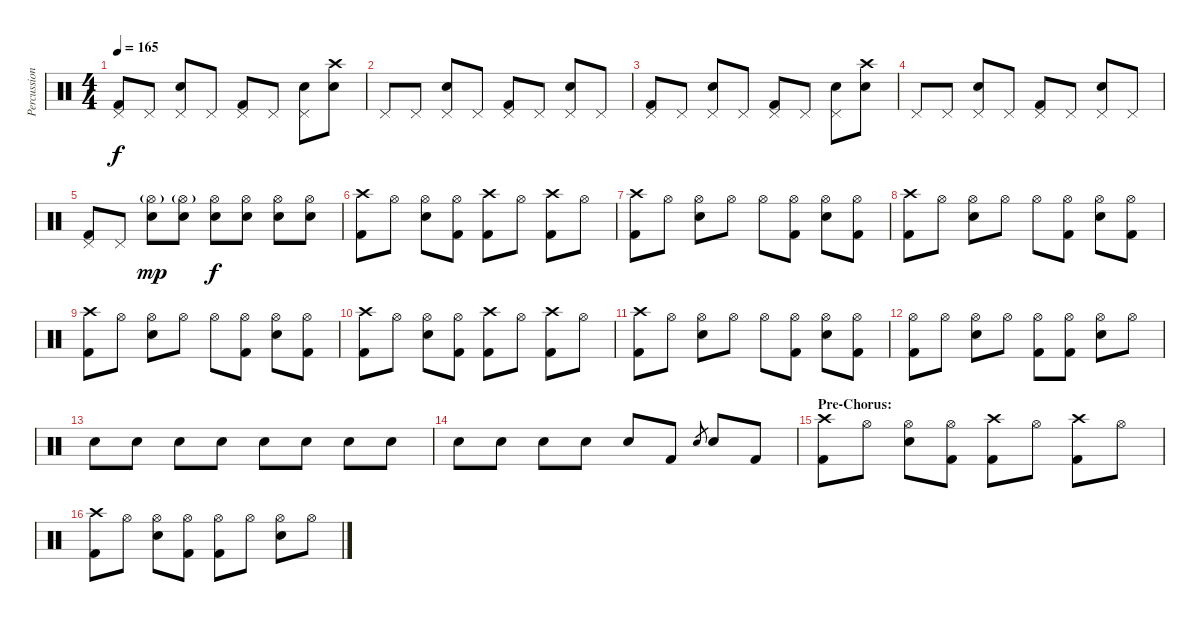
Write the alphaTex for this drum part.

\track ("Percussion" "Percussion") {instrument percussion}
\staff {score}
\articulation defaults
\ts (4 4)
\tempo 165
\clef neutral
\ks c
("Pedal Hi-Hat (hit)" "Kick (hit) 2").8{dy f} "Pedal Hi-Hat (hit)".8 ("Pedal Hi-Hat (hit)" "Snare (hit) 2").8 "Pedal Hi-Hat (hit)".8 ("Pedal Hi-Hat (hit)" "Kick (hit) 2").8 "Pedal Hi-Hat (hit)".8 ("Pedal Hi-Hat (hit)" "Snare (hit) 2").8 ("Crash high (hit)" "Snare (hit) 2").8 |
"Pedal Hi-Hat (hit)".8 "Pedal Hi-Hat (hit)".8 ("Pedal Hi-Hat (hit)" "Snare (hit) 2").8 "Pedal Hi-Hat (hit)".8 ("Pedal Hi-Hat (hit)" "Kick (hit) 2").8 "Pedal Hi-Hat (hit)".8 ("Pedal Hi-Hat (hit)" "Snare (hit) 2").8 "Pedal Hi-Hat (hit)".8 |
("Pedal Hi-Hat (hit)" "Kick (hit) 2").8 "Pedal Hi-Hat (hit)".8 ("Pedal Hi-Hat (hit)" "Snare (hit) 2").8 "Pedal Hi-Hat (hit)".8 ("Pedal Hi-Hat (hit)" "Kick (hit) 2").8 "Pedal Hi-Hat (hit)".8 ("Pedal Hi-Hat (hit)" "Snare (hit) 2").8 ("Crash high (hit)" "Snare (hit) 2").8 |
"Pedal Hi-Hat (hit)".8 "Pedal Hi-Hat (hit)".8 ("Pedal Hi-Hat (hit)" "Snare (hit) 2").8 "Pedal Hi-Hat (hit)".8 ("Pedal Hi-Hat (hit)" "Kick (hit) 2").8 "Pedal Hi-Hat (hit)".8 ("Pedal Hi-Hat (hit)" "Snare (hit) 2").8 "Pedal Hi-Hat (hit)".8 |
("Pedal Hi-Hat (hit)" "Kick (hit) 2").8 "Pedal Hi-Hat (hit)".8 ("Hi-Hat (open)"{g} "Snare (hit) 2").8{dy mp} ("Hi-Hat (open)"{g} "Snare (hit) 2").8 ("Hi-Hat (open)" "Snare (hit) 2").8{dy f} ("Hi-Hat (open)" "Snare (hit) 2").8 ("Hi-Hat (open)" "Snare (hit) 2").8 ("Hi-Hat (open)" "Snare (hit) 2").8 |
("Crash high (hit)" "Kick (hit) 2").8 "Hi-Hat (open)".8 ("Hi-Hat (open)" "Snare (hit) 2").8 ("Hi-Hat (open)" "Kick (hit) 2").8 ("Crash high (hit)" "Kick (hit) 2").8 "Hi-Hat (open)".8 ("Crash high (hit)" "Kick (hit) 2").8 "Hi-Hat (open)".8 |
("Crash high (hit)" "Kick (hit) 2").8 "Hi-Hat (open)".8 ("Hi-Hat (open)" "Snare (hit) 2").8 "Hi-Hat (open)".8 "Hi-Hat (open)".8 ("Hi-Hat (open)" "Kick (hit) 2").8 ("Hi-Hat (open)" "Snare (hit) 2").8 ("Hi-Hat (open)" "Kick (hit) 2").8 |
("Crash high (hit)" "Kick (hit) 2").8 "Hi-Hat (open)".8 ("Hi-Hat (open)" "Snare (hit) 2").8 "Hi-Hat (open)".8 "Hi-Hat (open)".8 ("Hi-Hat (open)" "Kick (hit) 2").8 ("Hi-Hat (open)" "Snare (hit) 2").8 ("Hi-Hat (open)" "Kick (hit) 2").8 |
("Crash high (hit)" "Kick (hit) 2").8 "Hi-Hat (open)".8 ("Hi-Hat (open)" "Snare (hit) 2").8 "Hi-Hat (open)".8 "Hi-Hat (open)".8 ("Hi-Hat (open)" "Kick (hit) 2").8 ("Hi-Hat (open)" "Snare (hit) 2").8 ("Hi-Hat (open)" "Kick (hit) 2").8 |
("Crash high (hit)" "Kick (hit) 2").8 "Hi-Hat (open)".8 ("Hi-Hat (open)" "Snare (hit) 2").8 ("Hi-Hat (open)" "Kick (hit) 2").8 ("Crash high (hit)" "Kick (hit) 2").8 "Hi-Hat (open)".8 ("Crash high (hit)" "Kick (hit) 2").8 "Hi-Hat (open)".8 |
("Crash high (hit)" "Kick (hit) 2").8 "Hi-Hat (open)".8 ("Hi-Hat (open)" "Snare (hit) 2").8 "Hi-Hat (open)".8 "Hi-Hat (open)".8 ("Hi-Hat (open)" "Kick (hit) 2").8 ("Hi-Hat (open)" "Snare (hit) 2").8 ("Hi-Hat (open)" "Kick (hit) 2").8 |
("Hi-Hat (open)" "Kick (hit) 2").8 "Hi-Hat (open)".8 ("Hi-Hat (open)" "Snare (hit) 2").8 "Hi-Hat (open)".8 ("Hi-Hat (open)" "Kick (hit) 2").8 ("Hi-Hat (open)" "Kick (hit) 2").8 ("Hi-Hat (open)" "Snare (hit) 2").8 "Hi-Hat (open)".8 |
"Snare (hit) 2".8 "Snare (hit) 2".8 "Snare (hit) 2".8 "Snare (hit) 2".8 "Snare (hit) 2".8 "Snare (hit) 2".8 "Snare (hit) 2".8 "Snare (hit) 2".8 |
"Snare (hit) 2".8 "Snare (hit) 2".8 "Snare (hit) 2".8 "Snare (hit) 2".8 "Snare (hit) 2".8 "Kick (hit) 2".8 "Snare (hit) 2".8{gr} "Snare (hit) 2".8 "Kick (hit) 2".8 |
\section ("" "Pre-Chorus:")
("Crash high (hit)" "Kick (hit) 2").8 "Hi-Hat (open)".8 ("Hi-Hat (open)" "Snare (hit) 2").8 ("Hi-Hat (open)" "Kick (hit) 2").8 ("Crash high (hit)" "Kick (hit) 2").8 "Hi-Hat (open)".8 ("Crash high (hit)" "Kick (hit) 2").8 "Hi-Hat (open)".8 |
("Crash high (hit)" "Kick (hit) 2").8 "Hi-Hat (open)".8 ("Hi-Hat (open)" "Snare (hit) 2").8 ("Hi-Hat (open)" "Kick (hit) 2").8 ("Hi-Hat (open)" "Kick (hit) 2").8 "Hi-Hat (open)".8 ("Hi-Hat (open)" "Snare (hit) 2").8 "Hi-Hat (open)".8
